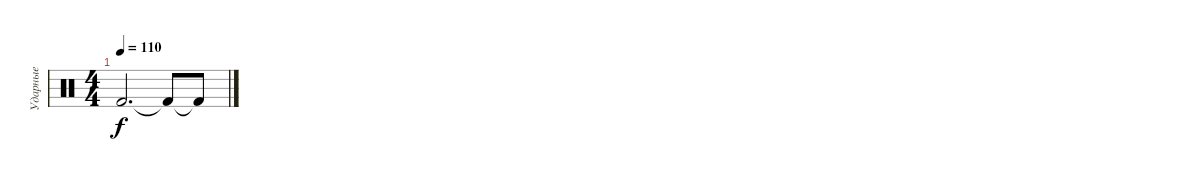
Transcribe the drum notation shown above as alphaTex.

\track ("Ударные" "Ударные") {instrument percussion}
\staff {score}
\articulation defaults
\ts (4 4)
\tempo 110
\clef neutral
\ks c "Kick (hit) 2".2{d dy f} "Kick (hit) 2"{t}.8 "Kick (hit) 2"{t}.8
